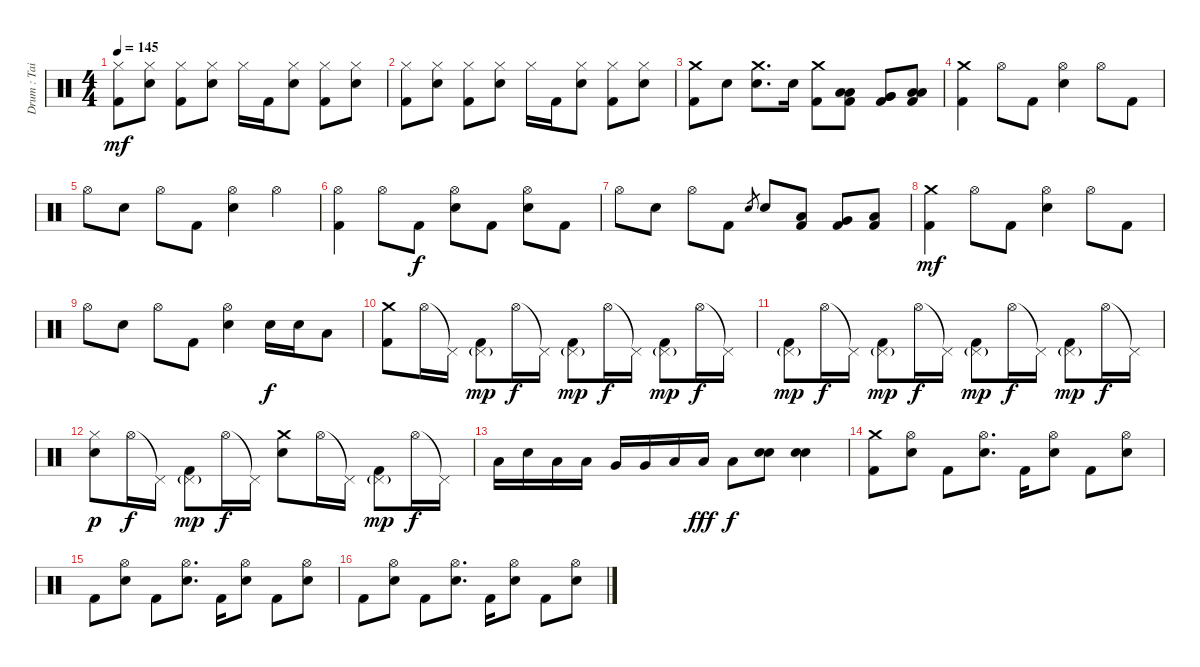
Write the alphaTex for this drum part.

\track ("Drum : Tainaka Ritsu" "Drum : Tai") {instrument percussion}
\staff {score}
\articulation defaults
\ts (4 4)
\tempo 145
\clef neutral
\ks c
("Hi-Hat (closed)" "Kick (hit) 2").8{dy mf} ("Hi-Hat (closed)" "Electric Snare (hit)").8 ("Hi-Hat (closed)" "Kick (hit) 2").8 ("Hi-Hat (closed)" "Electric Snare (hit)").8 "Hi-Hat (closed)".16 "Kick (hit) 2".16 ("Hi-Hat (closed)" "Electric Snare (hit)").8 ("Hi-Hat (closed)" "Kick (hit) 2").8 ("Hi-Hat (closed)" "Electric Snare (hit)").8 |
("Hi-Hat (closed)" "Kick (hit) 2").8 ("Hi-Hat (closed)" "Electric Snare (hit)").8 ("Hi-Hat (closed)" "Kick (hit) 2").8 ("Hi-Hat (closed)" "Electric Snare (hit)").8 "Hi-Hat (closed)".16 "Kick (hit) 2".16 ("Hi-Hat (closed)" "Electric Snare (hit)").8 ("Hi-Hat (closed)" "Kick (hit) 2").8 ("Hi-Hat (closed)" "Electric Snare (hit)").8 |
("Crash medium (hit)" "Kick (hit) 2").8 "Electric Snare (hit)".8 ("Crash medium (hit)" "Electric Snare (hit)").8{d} "Electric Snare (hit)".16 ("Crash medium (hit)" "Kick (hit) 2").8 ("Low Tom (hit)" "Low Tom (hit)" "Kick (hit) 2").8 ("Very Low Tom (hit)" "Very Low Tom (hit)" "Kick (hit) 2").8 ("Low Floor Tom (hit)" "Low Floor Tom (hit)" "Kick (hit) 2").8 |
("Crash medium (hit)" "Kick (hit) 2").4 "Hi-Hat (open)".8 "Kick (hit) 2".8 ("Hi-Hat (open)" "Electric Snare (hit)").4 "Hi-Hat (open)".8 "Kick (hit) 2".8 |
"Hi-Hat (open)".8 "Electric Snare (hit)".8 "Hi-Hat (open)".8 "Kick (hit) 2".8 ("Hi-Hat (open)" "Electric Snare (hit)").4 "Hi-Hat (open)".4 |
("Hi-Hat (open)" "Kick (hit) 2").4 "Hi-Hat (open)".8 "Kick (hit) 2".8{dy f} ("Hi-Hat (open)" "Electric Snare (hit)").8 "Kick (hit) 2".8 ("Hi-Hat (open)" "Electric Snare (hit)").8 "Kick (hit) 2".8 |
"Hi-Hat (open)".8 "Electric Snare (hit)".8 "Hi-Hat (open)".8 "Kick (hit) 2".8 "Electric Snare (hit)".8{gr} "Electric Snare (hit)".8 ("Low Tom (hit)" "Kick (hit) 2").8 ("Very Low Tom (hit)" "Kick (hit) 2").8 ("Low Floor Tom (hit)" "Kick (hit) 2").8 |
("Crash medium (hit)" "Kick (hit) 2").4{dy mf} "Hi-Hat (open)".8 "Kick (hit) 2".8 ("Hi-Hat (open)" "Electric Snare (hit)").4 "Hi-Hat (open)".8 "Kick (hit) 2".8 |
"Hi-Hat (open)".8 "Electric Snare (hit)".8 "Hi-Hat (open)".8 "Kick (hit) 2".8 ("Hi-Hat (open)" "Electric Snare (hit)").4 "Electric Snare (hit)".16{dy f} "Electric Snare (hit)".16 "Low Floor Tom (hit)".8 |
("Crash medium (hit)" "Kick (hit) 2").8 "Hi-Hat (open)".16 "Pedal Hi-Hat (hit)"{t}.16 ("Pedal Hi-Hat (hit)"{g} "Kick (hit) 2").8{dy mp} "Hi-Hat (open)".16{dy f} "Pedal Hi-Hat (hit)"{t}.16 ("Pedal Hi-Hat (hit)"{g} "Kick (hit) 2").8{dy mp} "Hi-Hat (open)".16{dy f} "Pedal Hi-Hat (hit)"{t}.16 ("Pedal Hi-Hat (hit)"{g} "Kick (hit) 2").8{dy mp} "Hi-Hat (open)".16{dy f} "Pedal Hi-Hat (hit)"{t}.16 |
("Pedal Hi-Hat (hit)"{g} "Kick (hit) 2").8{dy mp} "Hi-Hat (open)".16{dy f} "Pedal Hi-Hat (hit)"{t}.16 ("Pedal Hi-Hat (hit)"{g} "Kick (hit) 2").8{dy mp} "Hi-Hat (open)".16{dy f} "Pedal Hi-Hat (hit)"{t}.16 ("Pedal Hi-Hat (hit)"{g} "Kick (hit) 2").8{dy mp} "Hi-Hat (open)".16{dy f} "Pedal Hi-Hat (hit)"{t}.16 ("Pedal Hi-Hat (hit)"{g} "Kick (hit) 2").8{dy mp} "Hi-Hat (open)".16{dy f} "Pedal Hi-Hat (hit)"{t}.16 |
("Hi-Hat (closed)" "Electric Snare (hit)").8{dy p} "Hi-Hat (open)".16{dy f} "Pedal Hi-Hat (hit)"{t}.16 ("Pedal Hi-Hat (hit)"{g} "Kick (hit) 2").8{dy mp} "Hi-Hat (open)".16{dy f} "Pedal Hi-Hat (hit)"{t}.16 ("Crash medium (hit)" "Electric Snare (hit)").8 "Hi-Hat (open)".16 "Pedal Hi-Hat (hit)"{t}.16 ("Pedal Hi-Hat (hit)"{g} "Kick (hit) 2").8{dy mp} "Hi-Hat (open)".16{dy f} "Pedal Hi-Hat (hit)"{t}.16 |
"Low Tom (hit)".16 "Electric Snare (hit)".16 "Low Tom (hit)".16 "Low Tom (hit)".16 "Very Low Tom (hit)".16 "Very Low Tom (hit)".16 "Low Floor Tom (hit)".16 "Low Floor Tom (hit)".16{dy fff} "Low Floor Tom (hit)".8{dy f} ("Electric Snare (hit)" "Electric Snare (hit)").8 ("Electric Snare (hit)" "Electric Snare (hit)").4 |
("Crash medium (hit)" "Kick (hit) 2").8 ("Hi-Hat (open)" "Electric Snare (hit)").8 "Kick (hit) 2".8 ("Hi-Hat (open)" "Electric Snare (hit)").8{d} "Kick (hit) 2".16 ("Hi-Hat (open)" "Electric Snare (hit)").8 "Kick (hit) 2".8 ("Hi-Hat (open)" "Electric Snare (hit)").8 |
"Kick (hit) 2".8 ("Hi-Hat (open)" "Electric Snare (hit)").8 "Kick (hit) 2".8 ("Hi-Hat (open)" "Electric Snare (hit)").8{d} "Kick (hit) 2".16 ("Hi-Hat (open)" "Electric Snare (hit)").8 "Kick (hit) 2".8 ("Hi-Hat (open)" "Electric Snare (hit)").8 |
"Kick (hit) 2".8 ("Hi-Hat (open)" "Electric Snare (hit)").8 "Kick (hit) 2".8 ("Hi-Hat (open)" "Electric Snare (hit)").8{d} "Kick (hit) 2".16 ("Hi-Hat (open)" "Electric Snare (hit)").8 "Kick (hit) 2".8 ("Hi-Hat (open)" "Electric Snare (hit)").8
